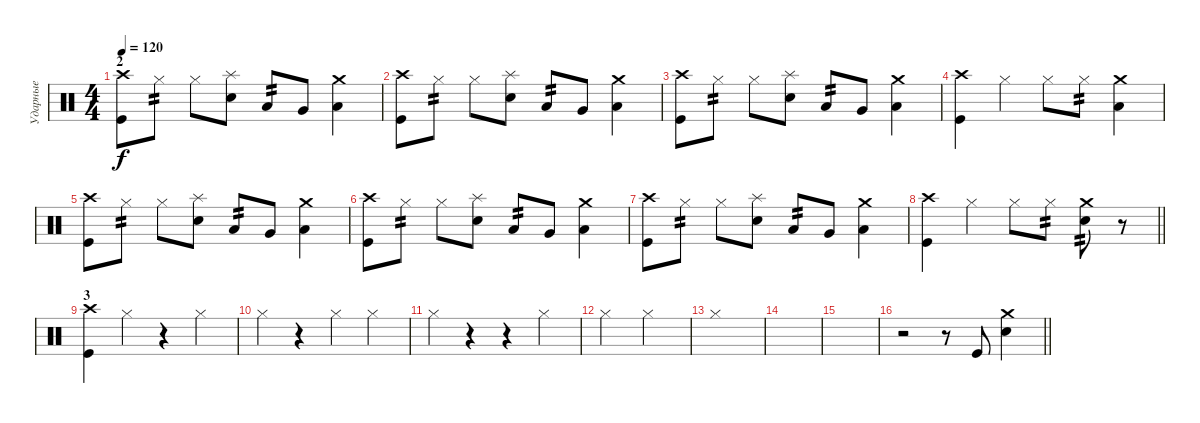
\track ("Ударные" "Ударные") {instrument percussion}
\staff {score}
\articulation defaults
\ts (4 4)
\section ("" "2")
\tempo 120
\clef neutral
\ks c
("Crash high (hit)" "Kick (hit)").8{dy f} "Hi-Hat (closed)".8{tp 2} "Hi-Hat (closed)".8 ("Splash (hit)" "Snare (hit) 2").8 "Low Tom (hit)".8{tp 2} "Very Low Tom (hit)".8 ("Crash medium (hit)" "Low Floor Tom (hit)").4 |
("Crash high (hit)" "Kick (hit)").8 "Hi-Hat (closed)".8{tp 2} "Hi-Hat (closed)".8 ("Splash (hit)" "Snare (hit) 2").8 "Low Tom (hit)".8{tp 2} "Very Low Tom (hit)".8 ("Crash medium (hit)" "Low Floor Tom (hit)").4 |
("Crash high (hit)" "Kick (hit)").8 "Hi-Hat (closed)".8{tp 2} "Hi-Hat (closed)".8 ("Splash (hit)" "Snare (hit) 2").8 "Low Tom (hit)".8{tp 2} "Very Low Tom (hit)".8 ("Crash medium (hit)" "Low Floor Tom (hit)").4 |
("Crash high (hit)" "Kick (hit)").4 "Hi-Hat (closed)".4 "Hi-Hat (closed)".8 "Hi-Hat (closed)".8{tp 2} ("Crash medium (hit)" "Low Floor Tom (hit)").4 |
("Crash high (hit)" "Kick (hit)").8 "Hi-Hat (closed)".8{tp 2} "Hi-Hat (closed)".8 ("Splash (hit)" "Snare (hit) 2").8 "Low Tom (hit)".8{tp 2} "Very Low Tom (hit)".8 ("Crash medium (hit)" "Low Floor Tom (hit)").4 |
("Crash high (hit)" "Kick (hit)").8 "Hi-Hat (closed)".8{tp 2} "Hi-Hat (closed)".8 ("Splash (hit)" "Snare (hit) 2").8 "Low Tom (hit)".8{tp 2} "Very Low Tom (hit)".8 ("Crash medium (hit)" "Low Floor Tom (hit)").4 |
("Crash high (hit)" "Kick (hit)").8 "Hi-Hat (closed)".8{tp 2} "Hi-Hat (closed)".8 ("Splash (hit)" "Snare (hit) 2").8 "Low Tom (hit)".8{tp 2} "Very Low Tom (hit)".8 ("Crash medium (hit)" "Low Floor Tom (hit)").4 |
\barLineRight lightlight
("Crash high (hit)" "Kick (hit)").4 "Hi-Hat (closed)".4 "Hi-Hat (closed)".8 "Hi-Hat (closed)".8{tp 2} ("Crash medium (hit)" "Snare (hit) 2").8{tp 2} r.8 |
\section ("" "3")
("Crash high (hit)" "Kick (hit)").4 "Hi-Hat (closed)".4 r.4 "Hi-Hat (closed)".4 |
"Hi-Hat (closed)".4 r.4 "Hi-Hat (closed)".4 "Hi-Hat (closed)".4 |
"Hi-Hat (closed)".4 r.4 r.4 "Hi-Hat (closed)".4 |
"Hi-Hat (closed)".2 "Hi-Hat (closed)".2 |
"Hi-Hat (closed)".1 |
|
|
\barLineRight lightlight
r.2 r.8 "Kick (hit)".8 ("Crash medium (hit)" "Snare (hit) 2").4
